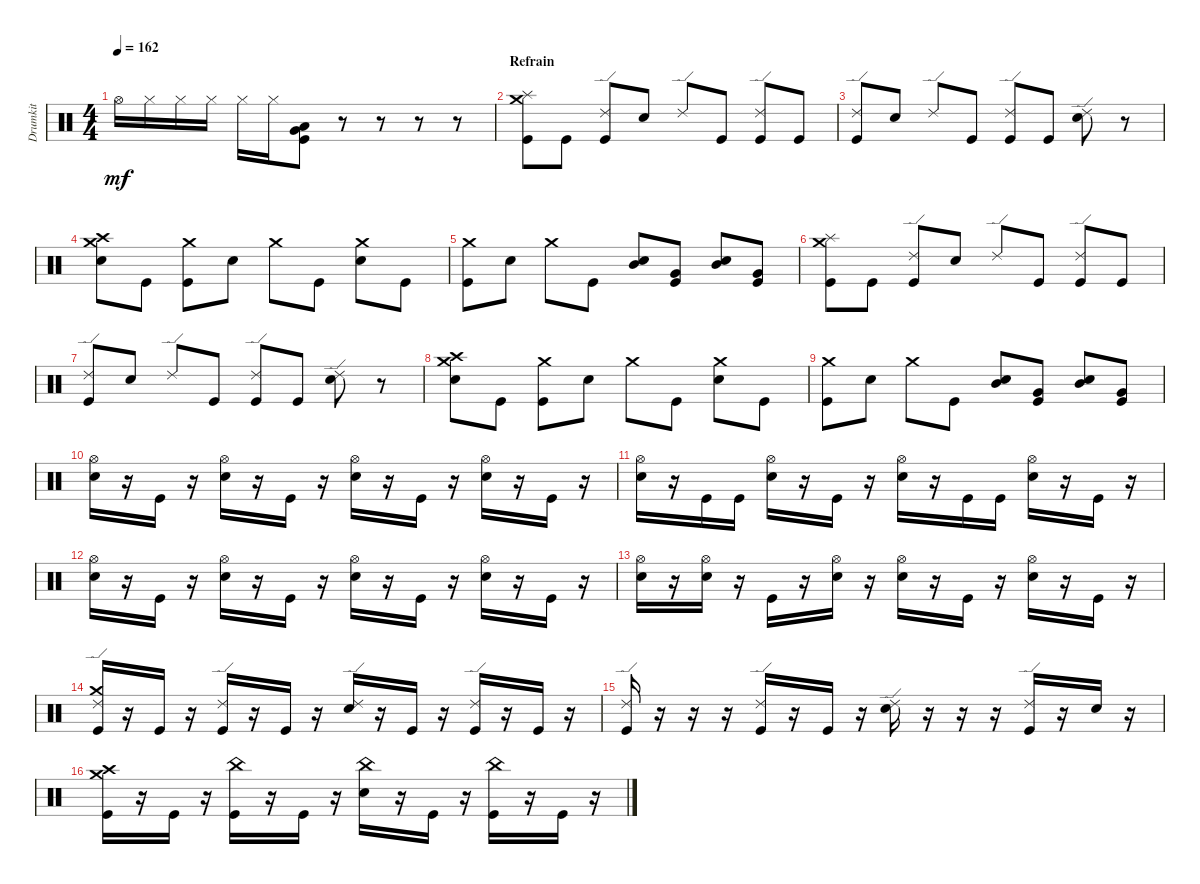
\track ("Drumkit" "Drumkit") {instrument percussion}
\staff {score}
\articulation defaults
\ts (4 4)
\tempo 162
\clef neutral
\ks c "Hi-Hat (open)".16{dy mf} "Hi-Hat (closed)".16 "Hi-Hat (closed)".16 "Hi-Hat (closed)".16 "Hi-Hat (closed)".16 "Hi-Hat (closed)".16
("Kick (hit)" "Low Floor Tom (hit)" "Very Low Tom (hit)").8 r.8 r.8 r.8 r.8 |
\section ("" "Refrain")
("Kick (hit)" "Crash medium (hit)" "Splash (hit)").8 "Kick (hit)".8 ("Kick (hit)" "Ride (edge) 2").8 "Snare (hit) 2".8 "Ride (edge) 2".8 "Kick (hit)".8 ("Kick (hit)" "Ride (edge) 2").8 "Kick (hit)".8 |
("Kick (hit)" "Ride (edge) 2").8 "Snare (hit) 2".8 "Ride (edge) 2".8 "Kick (hit)".8 ("Kick (hit)" "Ride (edge) 2").8 "Kick (hit)".8 ("Snare (hit) 2" "Ride (edge) 2").8 r.8 |
("Snare (hit) 2" "Crash medium (hit)" "Crash high (hit)").8 "Kick (hit)".8 ("Kick (hit)" "Crash medium (hit)").8 "Snare (hit) 2".8 "Crash medium (hit)".8 "Kick (hit)".8 ("Snare (hit) 2" "Crash medium (hit)").8 "Kick (hit)".8 |
("Kick (hit)" "Crash medium (hit)").8 "Snare (hit) 2".8 "Crash medium (hit)".8 "Kick (hit)".8 ("Snare (hit) 2" "Mid Tom (hit)").8 ("Kick (hit)" "Very Low Tom (hit)").8 ("Snare (hit) 2" "Mid Tom (hit)").8 ("Kick (hit)" "Very Low Tom (hit)").8 |
("Kick (hit)" "Crash medium (hit)" "Splash (hit)").8 "Kick (hit)".8 ("Kick (hit)" "Ride (edge) 2").8 "Snare (hit) 2".8 "Ride (edge) 2".8 "Kick (hit)".8 ("Kick (hit)" "Ride (edge) 2").8 "Kick (hit)".8 |
("Kick (hit)" "Ride (edge) 2").8 "Snare (hit) 2".8 "Ride (edge) 2".8 "Kick (hit)".8 ("Kick (hit)" "Ride (edge) 2").8 "Kick (hit)".8 ("Snare (hit) 2" "Ride (edge) 2").8 r.8 |
("Snare (hit) 2" "Crash medium (hit)" "Crash high (hit)").8 "Kick (hit)".8 ("Kick (hit)" "Crash medium (hit)").8 "Snare (hit) 2".8 "Crash medium (hit)".8 "Kick (hit)".8 ("Snare (hit) 2" "Crash medium (hit)").8 "Kick (hit)".8 |
("Kick (hit)" "Crash medium (hit)").8 "Snare (hit) 2".8 "Crash medium (hit)".8 "Kick (hit)".8 ("Snare (hit) 2" "Mid Tom (hit)").8 ("Kick (hit)" "Very Low Tom (hit)").8 ("Snare (hit) 2" "Mid Tom (hit)").8 ("Kick (hit)" "Very Low Tom (hit)").8 |
("Snare (hit) 2" "Hi-Hat (open)").16 r.16 "Kick (hit)".16 r.16 ("Snare (hit) 2" "Hi-Hat (open)").16 r.16 "Kick (hit)".16 r.16 ("Snare (hit) 2" "Hi-Hat (open)").16 r.16 "Kick (hit)".16 r.16 ("Snare (hit) 2" "Hi-Hat (open)").16 r.16 "Kick (hit)".16 r.16 |
("Snare (hit) 2" "Hi-Hat (open)").16 r.16 "Kick (hit)".16 "Kick (hit)".16 ("Snare (hit) 2" "Hi-Hat (open)").16 r.16 "Kick (hit)".16 r.16 ("Snare (hit) 2" "Hi-Hat (open)").16 r.16 "Kick (hit)".16 "Kick (hit)".16 ("Snare (hit) 2" "Hi-Hat (open)").16 r.16 "Kick (hit)".16 r.16 |
("Snare (hit) 2" "Hi-Hat (open)").16 r.16 "Kick (hit)".16 r.16 ("Snare (hit) 2" "Hi-Hat (open)").16 r.16 "Kick (hit)".16 r.16 ("Snare (hit) 2" "Hi-Hat (open)").16 r.16 "Kick (hit)".16 r.16 ("Snare (hit) 2" "Hi-Hat (open)").16 r.16 "Kick (hit)".16 r.16 |
("Snare (hit) 2" "Hi-Hat (open)").16 r.16 ("Snare (hit) 2" "Hi-Hat (open)").16 r.16 "Kick (hit)".16 r.16 ("Snare (hit) 2" "Hi-Hat (open)").16 r.16 ("Snare (hit) 2" "Hi-Hat (open)").16 r.16 "Kick (hit)".16 r.16 ("Snare (hit) 2" "Hi-Hat (open)").16 r.16 "Kick (hit)".16 r.16 |
("Kick (hit)" "Ride (edge) 2" "Crash medium (hit)").16 r.16 "Kick (hit)".16 r.16 ("Kick (hit)" "Ride (edge) 2").16 r.16 "Kick (hit)".16 r.16 ("Snare (hit) 2" "Ride (edge) 2").16 r.16 "Kick (hit)".16 r.16 ("Kick (hit)" "Ride (edge) 2").16 r.16 "Kick (hit)".16 r.16 |
("Kick (hit)" "Ride (edge) 2").16 r.16 r.16 r.16 ("Kick (hit)" "Ride (edge) 2").16 r.16 "Kick (hit)".16 r.16 ("Snare (hit) 2" "Ride (edge) 2").16 r.16 r.16 r.16 ("Kick (hit)" "Ride (edge) 2").16 r.16 "Snare (hit) 2".16 r.16 |
("Kick (hit)" "Crash high (hit)" "Crash medium (hit)").16 r.16 "Kick (hit)".16 r.16 ("Kick (hit)" "China (hit)").16 r.16 "Kick (hit)".16 r.16 ("Snare (hit) 2" "China (hit)").16 r.16 "Kick (hit)".16 r.16 ("Kick (hit)" "China (hit)").16 r.16 "Kick (hit)".16 r.16
